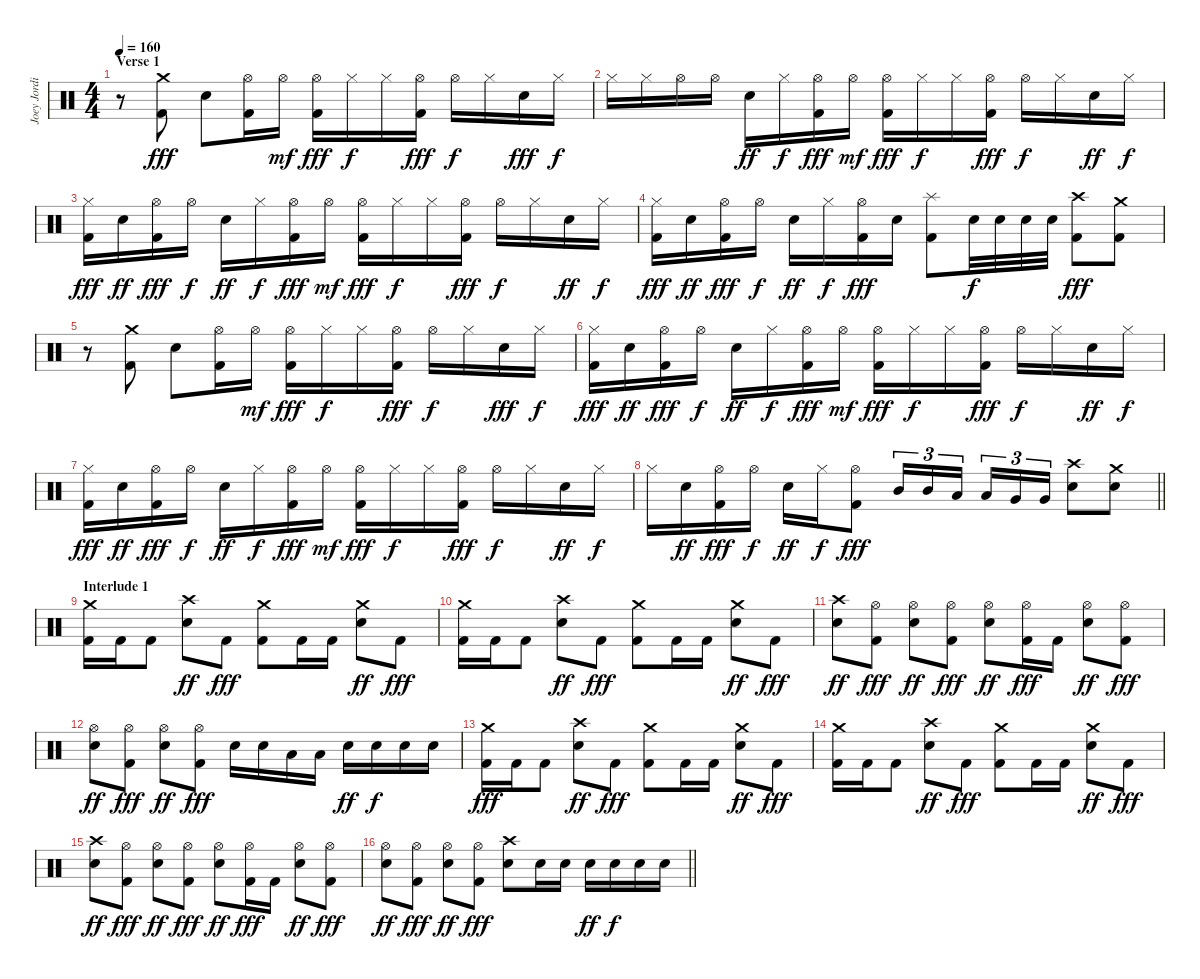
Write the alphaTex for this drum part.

\track ("Joey Jordison" "Joey Jordi") {instrument percussion}
\staff {score}
\articulation defaults
\ts (4 4)
\section ("" "Verse 1")
\tempo 160
\clef neutral
\ks c
r.8{dy ff} ("Crash medium (hit)" "Kick (hit) 2").8{dy fff} "Electric Snare (hit)".8 ("Hi-Hat (open)" "Kick (hit) 2").16 "Hi-Hat (open)".16{dy mf} ("Hi-Hat (open)" "Kick (hit) 2").16{dy fff} "Hi-Hat (closed)".16{dy f} "Hi-Hat (closed)".16 ("Hi-Hat (open)" "Kick (hit) 2").16{dy fff} "Hi-Hat (open)".16{dy f} "Hi-Hat (closed)".16 "Electric Snare (hit)".16{dy fff} "Hi-Hat (closed)".16{dy f} |
"Hi-Hat (closed)".16 "Hi-Hat (closed)".16 "Hi-Hat (open)".16 "Hi-Hat (open)".16 "Electric Snare (hit)".16{dy ff} "Hi-Hat (closed)".16{dy f} ("Hi-Hat (open)" "Kick (hit) 2").16{dy fff} "Hi-Hat (open)".16{dy mf} ("Hi-Hat (open)" "Kick (hit) 2").16{dy fff} "Hi-Hat (closed)".16{dy f} "Hi-Hat (closed)".16 ("Hi-Hat (open)" "Kick (hit) 2").16{dy fff} "Hi-Hat (open)".16{dy f} "Hi-Hat (closed)".16 "Electric Snare (hit)".16{dy ff} "Hi-Hat (closed)".16{dy f} |
("Hi-Hat (closed)" "Kick (hit) 2").16{dy fff} "Electric Snare (hit)".16{dy ff} ("Hi-Hat (open)" "Kick (hit) 2").16{dy fff} "Hi-Hat (open)".16{dy f} "Electric Snare (hit)".16{dy ff} "Hi-Hat (closed)".16{dy f} ("Hi-Hat (open)" "Kick (hit) 2").16{dy fff} "Hi-Hat (open)".16{dy mf} ("Hi-Hat (open)" "Kick (hit) 2").16{dy fff} "Hi-Hat (closed)".16{dy f} "Hi-Hat (closed)".16 ("Hi-Hat (open)" "Kick (hit) 2").16{dy fff} "Hi-Hat (open)".16{dy f} "Hi-Hat (closed)".16 "Electric Snare (hit)".16{dy ff} "Hi-Hat (closed)".16{dy f} |
("Hi-Hat (closed)" "Kick (hit) 2").16{dy fff} "Electric Snare (hit)".16{dy ff} ("Hi-Hat (open)" "Kick (hit) 2").16{dy fff} "Hi-Hat (open)".16{dy f} "Electric Snare (hit)".16{dy ff} "Hi-Hat (closed)".16{dy f} ("Hi-Hat (open)" "Kick (hit) 2").16{dy fff} "Electric Snare (hit)".16 ("Splash (hit)" "Kick (hit) 2").8 "Electric Snare (hit)".32{dy f} "Electric Snare (hit)".32 "Electric Snare (hit)".32 "Electric Snare (hit)".32 ("Crash high (hit)" "Kick (hit) 2").8{dy fff} ("Crash medium (hit)" "Kick (hit) 2").8 |
r.8 ("Crash medium (hit)" "Kick (hit) 2").8 "Electric Snare (hit)".8 ("Hi-Hat (open)" "Kick (hit) 2").16 "Hi-Hat (open)".16{dy mf} ("Hi-Hat (open)" "Kick (hit) 2").16{dy fff} "Hi-Hat (closed)".16{dy f} "Hi-Hat (closed)".16 ("Hi-Hat (open)" "Kick (hit) 2").16{dy fff} "Hi-Hat (open)".16{dy f} "Hi-Hat (closed)".16 "Electric Snare (hit)".16{dy fff} "Hi-Hat (closed)".16{dy f} |
("Hi-Hat (closed)" "Kick (hit) 2").16{dy fff} "Electric Snare (hit)".16{dy ff} ("Hi-Hat (open)" "Kick (hit) 2").16{dy fff} "Hi-Hat (open)".16{dy f} "Electric Snare (hit)".16{dy ff} "Hi-Hat (closed)".16{dy f} ("Hi-Hat (open)" "Kick (hit) 2").16{dy fff} "Hi-Hat (open)".16{dy mf} ("Hi-Hat (open)" "Kick (hit) 2").16{dy fff} "Hi-Hat (closed)".16{dy f} "Hi-Hat (closed)".16 ("Hi-Hat (open)" "Kick (hit) 2").16{dy fff} "Hi-Hat (open)".16{dy f} "Hi-Hat (closed)".16 "Electric Snare (hit)".16{dy ff} "Hi-Hat (closed)".16{dy f} |
("Hi-Hat (closed)" "Kick (hit) 2").16{dy fff} "Electric Snare (hit)".16{dy ff} ("Hi-Hat (open)" "Kick (hit) 2").16{dy fff} "Hi-Hat (open)".16{dy f} "Electric Snare (hit)".16{dy ff} "Hi-Hat (closed)".16{dy f} ("Hi-Hat (open)" "Kick (hit) 2").16{dy fff} "Hi-Hat (open)".16{dy mf} ("Hi-Hat (open)" "Kick (hit) 2").16{dy fff} "Hi-Hat (closed)".16{dy f} "Hi-Hat (closed)".16 ("Hi-Hat (open)" "Kick (hit) 2").16{dy fff} "Hi-Hat (open)".16{dy f} "Hi-Hat (closed)".16 "Electric Snare (hit)".16{dy ff} "Hi-Hat (closed)".16{dy f} |
\barLineRight lightlight "Hi-Hat (closed)".16 "Electric Snare (hit)".16{dy ff}
("Hi-Hat (open)" "Kick (hit) 2").16{dy fff} "Hi-Hat (open)".16{dy f} "Electric Snare (hit)".16{dy ff} "Hi-Hat (closed)".16{dy f} ("Hi-Hat (open)" "Kick (hit) 2").8{dy fff} "Mid Tom (hit)".16{tu (3 2)} "Mid Tom (hit)".16{tu (3 2)} "Low Tom (hit)".16{tu (3 2) beam splitsecondary} "Low Tom (hit)".16{tu (3 2)} "Very Low Tom (hit)".16{tu (3 2)} "Very Low Tom (hit)".16{tu (3 2)} ("Crash high (hit)" "Electric Snare (hit)").8 ("Crash medium (hit)" "Electric Snare (hit)").8 |
\section ("" "Interlude 1")
("Crash medium (hit)" "Kick (hit) 2").16 "Kick (hit) 2".16 "Kick (hit) 2".8 ("Crash high (hit)" "Electric Snare (hit)").8{dy ff} "Kick (hit) 2".8{dy fff} ("Crash medium (hit)" "Kick (hit) 2").8 "Kick (hit) 2".16 "Kick (hit) 2".16 ("Crash medium (hit)" "Electric Snare (hit)").8{dy ff} "Kick (hit) 2".8{dy fff} |
("Crash medium (hit)" "Kick (hit) 2").16 "Kick (hit) 2".16 "Kick (hit) 2".8 ("Crash high (hit)" "Electric Snare (hit)").8{dy ff} "Kick (hit) 2".8{dy fff} ("Crash medium (hit)" "Kick (hit) 2").8 "Kick (hit) 2".16 "Kick (hit) 2".16 ("Crash medium (hit)" "Electric Snare (hit)").8{dy ff} "Kick (hit) 2".8{dy fff} |
("Crash high (hit)" "Electric Snare (hit)").8{dy ff} ("Hi-Hat (open)" "Kick (hit) 2").8{dy fff} ("Hi-Hat (open)" "Electric Snare (hit)").8{dy ff} ("Hi-Hat (open)" "Kick (hit) 2").8{dy fff} ("Hi-Hat (open)" "Electric Snare (hit)").8{dy ff} ("Hi-Hat (open)" "Kick (hit) 2").16{dy fff} "Kick (hit) 2".16 ("Hi-Hat (open)" "Electric Snare (hit)").8{dy ff} ("Hi-Hat (open)" "Kick (hit) 2").8{dy fff} |
("Hi-Hat (open)" "Electric Snare (hit)").8{dy ff} ("Hi-Hat (open)" "Kick (hit) 2").8{dy fff} ("Hi-Hat (open)" "Electric Snare (hit)").8{dy ff} ("Hi-Hat (open)" "Kick (hit) 2").8{dy fff} "Electric Snare (hit)".16 "Electric Snare (hit)".16 "Low Tom (hit)".16 "Low Tom (hit)".16 "Electric Snare (hit)".16{dy ff} "Electric Snare (hit)".16{dy f} "Electric Snare (hit)".16 "Electric Snare (hit)".16 |
("Crash medium (hit)" "Kick (hit) 2").16{dy fff} "Kick (hit) 2".16 "Kick (hit) 2".8 ("Crash high (hit)" "Electric Snare (hit)").8{dy ff} "Kick (hit) 2".8{dy fff} ("Crash medium (hit)" "Kick (hit) 2").8 "Kick (hit) 2".16 "Kick (hit) 2".16 ("Crash medium (hit)" "Electric Snare (hit)").8{dy ff} "Kick (hit) 2".8{dy fff} |
("Crash medium (hit)" "Kick (hit) 2").16 "Kick (hit) 2".16 "Kick (hit) 2".8 ("Crash high (hit)" "Electric Snare (hit)").8{dy ff} "Kick (hit) 2".8{dy fff} ("Crash medium (hit)" "Kick (hit) 2").8 "Kick (hit) 2".16 "Kick (hit) 2".16 ("Crash medium (hit)" "Electric Snare (hit)").8{dy ff} "Kick (hit) 2".8{dy fff} |
("Crash high (hit)" "Electric Snare (hit)").8{dy ff} ("Hi-Hat (open)" "Kick (hit) 2").8{dy fff} ("Hi-Hat (open)" "Electric Snare (hit)").8{dy ff} ("Hi-Hat (open)" "Kick (hit) 2").8{dy fff} ("Hi-Hat (open)" "Electric Snare (hit)").8{dy ff} ("Hi-Hat (open)" "Kick (hit) 2").16{dy fff} "Kick (hit) 2".16 ("Hi-Hat (open)" "Electric Snare (hit)").8{dy ff} ("Hi-Hat (open)" "Kick (hit) 2").8{dy fff} |
\barLineRight lightlight
("Hi-Hat (open)" "Electric Snare (hit)").8{dy ff} ("Hi-Hat (open)" "Kick (hit) 2").8{dy fff} ("Hi-Hat (open)" "Electric Snare (hit)").8{dy ff} ("Hi-Hat (open)" "Kick (hit) 2").8{dy fff} ("Crash high (hit)" "Electric Snare (hit)").8 "Electric Snare (hit)".16 "Electric Snare (hit)".16 "Electric Snare (hit)".16{dy ff} "Electric Snare (hit)".16{dy f} "Electric Snare (hit)".16 "Electric Snare (hit)".16
